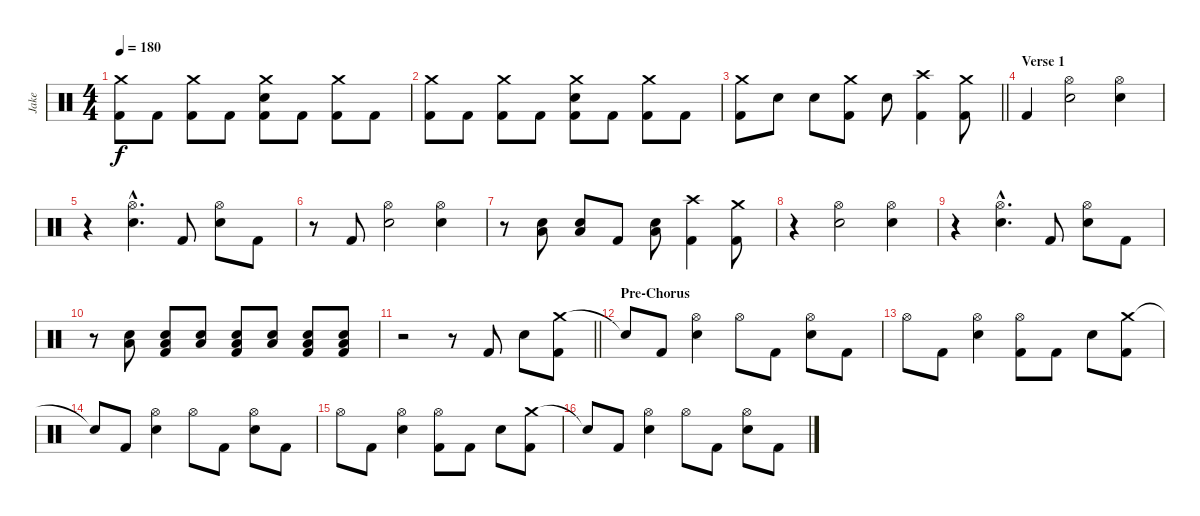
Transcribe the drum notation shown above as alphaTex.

\track ("Jake" "Jake") {instrument percussion}
\staff {score}
\articulation defaults
\ts (4 4)
\tempo 180
\clef neutral
\ks c
("Crash medium (hit)" "Kick (hit) 2").8{dy f} "Kick (hit) 2".8 ("Crash medium (hit)" "Kick (hit) 2").8 "Kick (hit) 2".8 ("Crash medium (hit)" "Electric Snare (hit)" "Kick (hit) 2").8 "Kick (hit) 2".8 ("Crash medium (hit)" "Kick (hit) 2").8 "Kick (hit) 2".8 |
("Crash medium (hit)" "Kick (hit) 2").8 "Kick (hit) 2".8 ("Crash medium (hit)" "Kick (hit) 2").8 "Kick (hit) 2".8 ("Crash medium (hit)" "Electric Snare (hit)" "Kick (hit) 2").8 "Kick (hit) 2".8 ("Crash medium (hit)" "Kick (hit) 2").8 "Kick (hit) 2".8 |
\barLineRight lightlight
("Crash medium (hit)" "Kick (hit) 2").8 "Electric Snare (hit)".8 "Electric Snare (hit)".8 ("Crash medium (hit)" "Kick (hit) 2").8 "Electric Snare (hit)".8 ("Crash high (hit)" "Kick (hit) 2").4 ("Crash medium (hit)" "Kick (hit) 2").8 |
\section ("" "Verse 1")
"Kick (hit) 2".4 ("Hi-Hat (open)" "Electric Snare (hit)").2 ("Hi-Hat (open)" "Electric Snare (hit)").4 |
r.4 ("Hi-Hat (open)"{hac} "Electric Snare (hit)"{hac}).4{d} "Kick (hit) 2".8 ("Hi-Hat (open)" "Electric Snare (hit)").8 "Kick (hit) 2".8 |
r.8 "Kick (hit) 2".8 ("Hi-Hat (open)" "Electric Snare (hit)").2 ("Hi-Hat (open)" "Electric Snare (hit)").4 |
r.8 ("Electric Snare (hit)" "Low Floor Tom (hit)").8 ("Electric Snare (hit)" "Low Floor Tom (hit)").8 "Kick (hit) 2".8 ("Electric Snare (hit)" "Low Floor Tom (hit)").8 ("Crash high (hit)" "Kick (hit) 2").4 ("Crash medium (hit)" "Kick (hit) 2").8 |
r.4 ("Hi-Hat (open)" "Electric Snare (hit)").2 ("Hi-Hat (open)" "Electric Snare (hit)").4 |
r.4 ("Hi-Hat (open)"{hac} "Electric Snare (hit)"{hac}).4{d} "Kick (hit) 2".8 ("Hi-Hat (open)" "Electric Snare (hit)").8 "Kick (hit) 2".8 |
r.8 ("Electric Snare (hit)" "Low Floor Tom (hit)").8 ("Electric Snare (hit)" "Low Floor Tom (hit)" "Kick (hit) 2").8 ("Electric Snare (hit)" "Low Floor Tom (hit)").8 ("Electric Snare (hit)" "Low Floor Tom (hit)" "Kick (hit) 2").8 ("Electric Snare (hit)" "Low Floor Tom (hit)").8 ("Electric Snare (hit)" "Low Floor Tom (hit)" "Kick (hit) 2").8 ("Electric Snare (hit)" "Low Floor Tom (hit)" "Kick (hit) 2").8 |
\barLineRight lightlight
r.2 r.8 "Kick (hit) 2".8 "Electric Snare (hit)".8 ("Crash medium (hit)" "Kick (hit) 2").8 |
\section ("" "Pre-Chorus")
"Snare (hit)"{t}.8 "Kick (hit) 2".8 ("Hi-Hat (open)" "Electric Snare (hit)").4 "Hi-Hat (open)".8 "Kick (hit) 2".8 ("Hi-Hat (open)" "Electric Snare (hit)").8 "Kick (hit) 2".8 |
"Hi-Hat (open)".8 "Kick (hit) 2".8 ("Hi-Hat (open)" "Electric Snare (hit)").4 ("Hi-Hat (open)" "Kick (hit) 2").8 "Kick (hit) 2".8 "Electric Snare (hit)".8 ("Crash medium (hit)" "Kick (hit) 2").8 |
"Snare (hit)"{t}.8 "Kick (hit) 2".8 ("Hi-Hat (open)" "Electric Snare (hit)").4 "Hi-Hat (open)".8 "Kick (hit) 2".8 ("Hi-Hat (open)" "Electric Snare (hit)").8 "Kick (hit) 2".8 |
"Hi-Hat (open)".8 "Kick (hit) 2".8 ("Hi-Hat (open)" "Electric Snare (hit)").4 ("Hi-Hat (open)" "Kick (hit) 2").8 "Kick (hit) 2".8 "Electric Snare (hit)".8 ("Crash medium (hit)" "Kick (hit) 2").8 |
"Snare (hit)"{t}.8 "Kick (hit) 2".8 ("Hi-Hat (open)" "Electric Snare (hit)").4 "Hi-Hat (open)".8 "Kick (hit) 2".8 ("Hi-Hat (open)" "Electric Snare (hit)").8 "Kick (hit) 2".8
